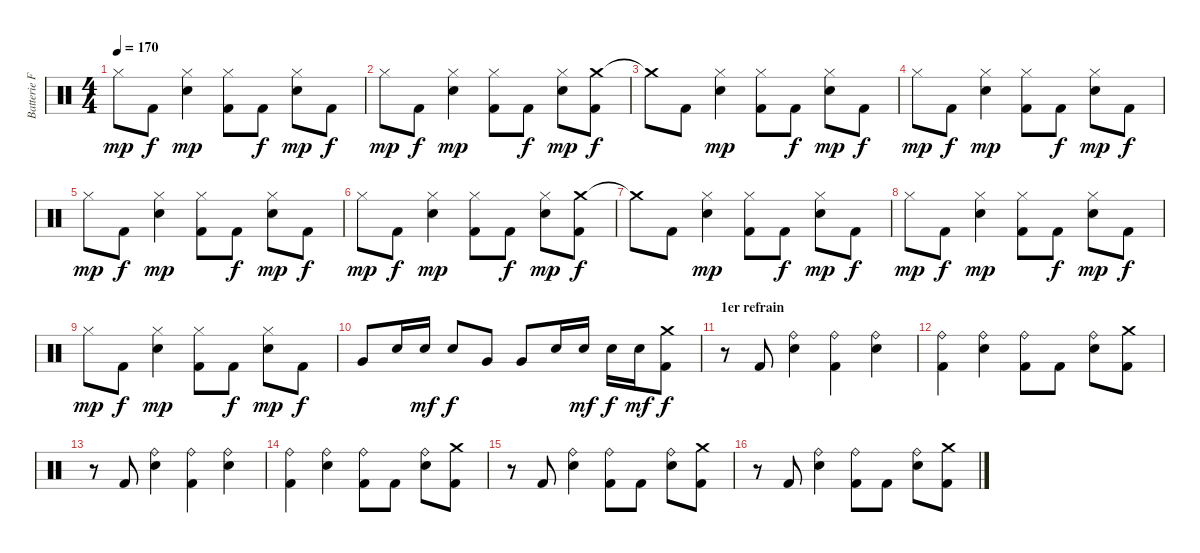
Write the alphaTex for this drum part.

\track ("Batterie Franck" "Batterie F") {instrument percussion}
\staff {score}
\articulation defaults
\ts (4 4)
\tempo 170
\clef neutral
\ks c "Hi-Hat (closed)".8{dy mp} "Kick (hit) 2".8{dy f}
("Hi-Hat (closed)" "Snare (hit) 2").4{dy mp} ("Hi-Hat (closed)" "Kick (hit) 2").8 "Kick (hit) 2".8{dy f} ("Hi-Hat (closed)" "Snare (hit) 2").8{dy mp} "Kick (hit) 2".8{dy f} |
"Hi-Hat (closed)".8{dy mp} "Kick (hit) 2".8{dy f} ("Hi-Hat (closed)" "Snare (hit) 2").4{dy mp} ("Hi-Hat (closed)" "Kick (hit) 2").8 "Kick (hit) 2".8{dy f} ("Hi-Hat (closed)" "Snare (hit) 2").8{dy mp} ("Crash medium (hit)" "Kick (hit) 2").8{dy f} |
"Crash medium (hit)"{t}.8 "Kick (hit) 2".8 ("Hi-Hat (closed)" "Snare (hit) 2").4{dy mp} ("Hi-Hat (closed)" "Kick (hit) 2").8 "Kick (hit) 2".8{dy f} ("Hi-Hat (closed)" "Snare (hit) 2").8{dy mp} "Kick (hit) 2".8{dy f} |
"Hi-Hat (closed)".8{dy mp} "Kick (hit) 2".8{dy f} ("Hi-Hat (closed)" "Snare (hit) 2").4{dy mp} ("Hi-Hat (closed)" "Kick (hit) 2").8 "Kick (hit) 2".8{dy f} ("Hi-Hat (closed)" "Snare (hit) 2").8{dy mp} "Kick (hit) 2".8{dy f} |
"Hi-Hat (closed)".8{dy mp} "Kick (hit) 2".8{dy f} ("Hi-Hat (closed)" "Snare (hit) 2").4{dy mp} ("Hi-Hat (closed)" "Kick (hit) 2").8 "Kick (hit) 2".8{dy f} ("Hi-Hat (closed)" "Snare (hit) 2").8{dy mp} "Kick (hit) 2".8{dy f} |
"Hi-Hat (closed)".8{dy mp} "Kick (hit) 2".8{dy f} ("Hi-Hat (closed)" "Snare (hit) 2").4{dy mp} ("Hi-Hat (closed)" "Kick (hit) 2").8 "Kick (hit) 2".8{dy f} ("Hi-Hat (closed)" "Snare (hit) 2").8{dy mp} ("Crash medium (hit)" "Kick (hit) 2").8{dy f} |
"Crash medium (hit)"{t}.8 "Kick (hit) 2".8 ("Hi-Hat (closed)" "Snare (hit) 2").4{dy mp} ("Hi-Hat (closed)" "Kick (hit) 2").8 "Kick (hit) 2".8{dy f} ("Hi-Hat (closed)" "Snare (hit) 2").8{dy mp} "Kick (hit) 2".8{dy f} |
"Hi-Hat (closed)".8{dy mp} "Kick (hit) 2".8{dy f} ("Hi-Hat (closed)" "Snare (hit) 2").4{dy mp} ("Hi-Hat (closed)" "Kick (hit) 2").8 "Kick (hit) 2".8{dy f} ("Hi-Hat (closed)" "Snare (hit) 2").8{dy mp} "Kick (hit) 2".8{dy f} |
"Hi-Hat (closed)".8{dy mp} "Kick (hit) 2".8{dy f} ("Hi-Hat (closed)" "Snare (hit) 2").4{dy mp} ("Hi-Hat (closed)" "Kick (hit) 2").8 "Kick (hit) 2".8{dy f} ("Hi-Hat (closed)" "Snare (hit) 2").8{dy mp} "Kick (hit) 2".8{dy f} |
"Very Low Tom (hit)".8 "Snare (hit) 2".16 "Snare (hit) 2".16{dy mf} "Snare (hit) 2".8{dy f} "Very Low Tom (hit)".8 "Very Low Tom (hit)".8 "Snare (hit) 2".16 "Snare (hit) 2".16{dy mf} "Snare (hit) 2".16{dy f} "Snare (hit) 2".16{dy mf} ("Crash medium (hit)" "Kick (hit) 2").8{dy f} |
\section ("" "1er refrain")
r.8 "Kick (hit) 2".8 ("Ride (bell)" "Snare (hit) 2").4 ("Ride (bell)" "Kick (hit) 2").4 ("Ride (bell)" "Snare (hit) 2").4 |
("Ride (bell)" "Kick (hit) 2").4 ("Ride (bell)" "Snare (hit) 2").4 ("Ride (bell)" "Kick (hit) 2").8 "Kick (hit) 2".8 ("Ride (bell)" "Snare (hit) 2").8 ("Crash medium (hit)" "Kick (hit) 2").8 |
r.8 "Kick (hit) 2".8 ("Ride (bell)" "Snare (hit) 2").4 ("Ride (bell)" "Kick (hit) 2").4 ("Ride (bell)" "Snare (hit) 2").4 |
("Ride (bell)" "Kick (hit) 2").4 ("Ride (bell)" "Snare (hit) 2").4 ("Ride (bell)" "Kick (hit) 2").8 "Kick (hit) 2".8 ("Ride (bell)" "Snare (hit) 2").8 ("Crash medium (hit)" "Kick (hit) 2").8 |
r.8 "Kick (hit) 2".8 ("Ride (bell)" "Snare (hit) 2").4 ("Ride (bell)" "Kick (hit) 2").8 "Kick (hit) 2".8 ("Ride (bell)" "Snare (hit) 2").8 ("Crash medium (hit)" "Kick (hit) 2").8 |
r.8 "Kick (hit) 2".8 ("Ride (bell)" "Snare (hit) 2").4 ("Ride (bell)" "Kick (hit) 2").8 "Kick (hit) 2".8 ("Ride (bell)" "Snare (hit) 2").8 ("Crash medium (hit)" "Kick (hit) 2").8
